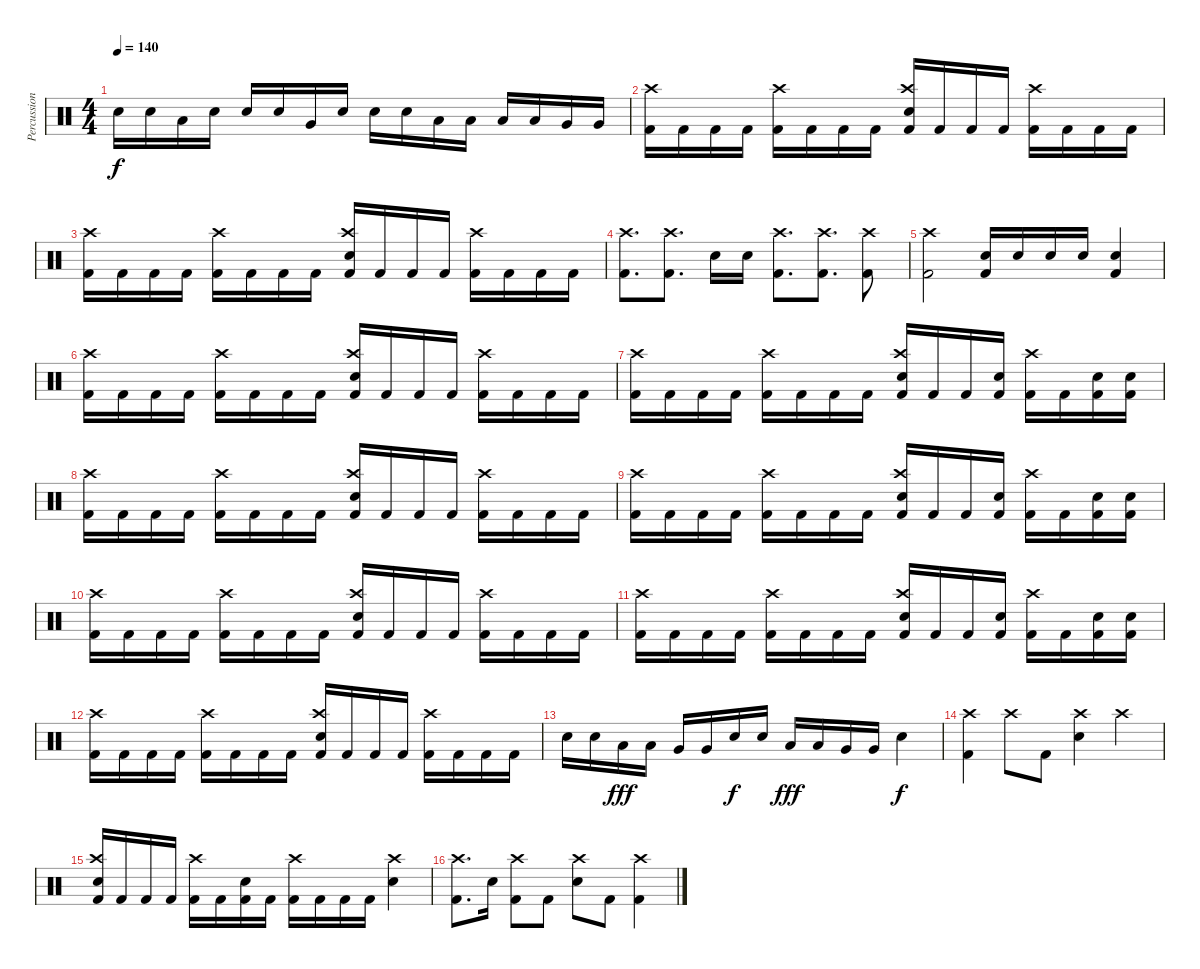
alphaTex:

\track ("Percussion" "Percussion") {instrument percussion}
\staff {score}
\articulation defaults
\ts (4 4)
\tempo 140
\clef neutral
\ks c "Snare (hit) 2".16{dy f} "Snare (hit) 2".16 "Low Tom (hit)".16 "Snare (hit) 2".16 "Snare (hit) 2".16 "Snare (hit) 2".16 "Very Low Tom (hit)".16 "Snare (hit) 2".16 "Snare (hit) 2".16 "Snare (hit) 2".16 "Low Tom (hit)".16 "Low Tom (hit)".16 "Low Tom (hit)".16 "Low Tom (hit)".16 "Very Low Tom (hit)".16 "Very Low Tom (hit)".16
|
("Crash high (hit)" "Kick (hit) 2").16 "Kick (hit) 2".16 "Kick (hit) 2".16 "Kick (hit) 2".16 ("Crash high (hit)" "Kick (hit) 2").16 "Kick (hit) 2".16 "Kick (hit) 2".16 "Kick (hit) 2".16 ("Crash high (hit)" "Snare (hit) 2" "Kick (hit) 2").16 "Kick (hit) 2".16 "Kick (hit) 2".16 "Kick (hit) 2".16 ("Crash high (hit)" "Kick (hit) 2").16 "Kick (hit) 2".16 "Kick (hit) 2".16 "Kick (hit) 2".16 |
("Crash high (hit)" "Kick (hit) 2").16 "Kick (hit) 2".16 "Kick (hit) 2".16 "Kick (hit) 2".16 ("Crash high (hit)" "Kick (hit) 2").16 "Kick (hit) 2".16 "Kick (hit) 2".16 "Kick (hit) 2".16 ("Crash high (hit)" "Snare (hit) 2" "Kick (hit) 2").16 "Kick (hit) 2".16 "Kick (hit) 2".16 "Kick (hit) 2".16 ("Crash high (hit)" "Kick (hit) 2").16 "Kick (hit) 2".16 "Kick (hit) 2".16 "Kick (hit) 2".16 |
("Crash high (hit)" "Kick (hit) 2").8{d} ("Crash high (hit)" "Kick (hit) 2").8{d} "Snare (hit) 2".16 "Snare (hit) 2".16 ("Crash high (hit)" "Kick (hit) 2").8{d} ("Crash high (hit)" "Kick (hit) 2").8{d} ("Crash high (hit)" "Kick (hit) 2").8 |
("Crash high (hit)" "Kick (hit) 2").2 ("Snare (hit) 2" "Kick (hit) 2").16 "Snare (hit) 2".16 "Snare (hit) 2".16 "Snare (hit) 2".16 ("Snare (hit) 2" "Kick (hit) 2").4 |
("Crash high (hit)" "Kick (hit) 2").16 "Kick (hit) 2".16 "Kick (hit) 2".16 "Kick (hit) 2".16 ("Crash high (hit)" "Kick (hit) 2").16 "Kick (hit) 2".16 "Kick (hit) 2".16 "Kick (hit) 2".16 ("Crash high (hit)" "Snare (hit) 2" "Kick (hit) 2").16 "Kick (hit) 2".16 "Kick (hit) 2".16 "Kick (hit) 2".16 ("Crash high (hit)" "Kick (hit) 2").16 "Kick (hit) 2".16 "Kick (hit) 2".16 "Kick (hit) 2".16 |
("Crash high (hit)" "Kick (hit) 2").16 "Kick (hit) 2".16 "Kick (hit) 2".16 "Kick (hit) 2".16 ("Crash high (hit)" "Kick (hit) 2").16 "Kick (hit) 2".16 "Kick (hit) 2".16 "Kick (hit) 2".16 ("Crash high (hit)" "Snare (hit) 2" "Kick (hit) 2").16 "Kick (hit) 2".16 "Kick (hit) 2".16 ("Snare (hit) 2" "Kick (hit) 2").16 ("Crash high (hit)" "Kick (hit) 2").16 "Kick (hit) 2".16 ("Snare (hit) 2" "Kick (hit) 2").16 ("Snare (hit) 2" "Kick (hit) 2").16 |
("Crash high (hit)" "Kick (hit) 2").16 "Kick (hit) 2".16 "Kick (hit) 2".16 "Kick (hit) 2".16 ("Crash high (hit)" "Kick (hit) 2").16 "Kick (hit) 2".16 "Kick (hit) 2".16 "Kick (hit) 2".16 ("Crash high (hit)" "Snare (hit) 2" "Kick (hit) 2").16 "Kick (hit) 2".16 "Kick (hit) 2".16 "Kick (hit) 2".16 ("Crash high (hit)" "Kick (hit) 2").16 "Kick (hit) 2".16 "Kick (hit) 2".16 "Kick (hit) 2".16 |
("Crash high (hit)" "Kick (hit) 2").16 "Kick (hit) 2".16 "Kick (hit) 2".16 "Kick (hit) 2".16 ("Crash high (hit)" "Kick (hit) 2").16 "Kick (hit) 2".16 "Kick (hit) 2".16 "Kick (hit) 2".16 ("Crash high (hit)" "Snare (hit) 2" "Kick (hit) 2").16 "Kick (hit) 2".16 "Kick (hit) 2".16 ("Snare (hit) 2" "Kick (hit) 2").16 ("Crash high (hit)" "Kick (hit) 2").16 "Kick (hit) 2".16 ("Snare (hit) 2" "Kick (hit) 2").16 ("Snare (hit) 2" "Kick (hit) 2").16 |
("Crash high (hit)" "Kick (hit) 2").16 "Kick (hit) 2".16 "Kick (hit) 2".16 "Kick (hit) 2".16 ("Crash high (hit)" "Kick (hit) 2").16 "Kick (hit) 2".16 "Kick (hit) 2".16 "Kick (hit) 2".16 ("Crash high (hit)" "Snare (hit) 2" "Kick (hit) 2").16 "Kick (hit) 2".16 "Kick (hit) 2".16 "Kick (hit) 2".16 ("Crash high (hit)" "Kick (hit) 2").16 "Kick (hit) 2".16 "Kick (hit) 2".16 "Kick (hit) 2".16 |
("Crash high (hit)" "Kick (hit) 2").16 "Kick (hit) 2".16 "Kick (hit) 2".16 "Kick (hit) 2".16 ("Crash high (hit)" "Kick (hit) 2").16 "Kick (hit) 2".16 "Kick (hit) 2".16 "Kick (hit) 2".16 ("Crash high (hit)" "Snare (hit) 2" "Kick (hit) 2").16 "Kick (hit) 2".16 "Kick (hit) 2".16 ("Snare (hit) 2" "Kick (hit) 2").16 ("Crash high (hit)" "Kick (hit) 2").16 "Kick (hit) 2".16 ("Snare (hit) 2" "Kick (hit) 2").16 ("Snare (hit) 2" "Kick (hit) 2").16 |
("Crash high (hit)" "Kick (hit) 2").16 "Kick (hit) 2".16 "Kick (hit) 2".16 "Kick (hit) 2".16 ("Crash high (hit)" "Kick (hit) 2").16 "Kick (hit) 2".16 "Kick (hit) 2".16 "Kick (hit) 2".16 ("Crash high (hit)" "Snare (hit) 2" "Kick (hit) 2").16 "Kick (hit) 2".16 "Kick (hit) 2".16 "Kick (hit) 2".16 ("Crash high (hit)" "Kick (hit) 2").16 "Kick (hit) 2".16 "Kick (hit) 2".16 "Kick (hit) 2".16 |
"Snare (hit) 2".16 "Snare (hit) 2".16 "Low Tom (hit)".16{dy fff} "Low Tom (hit)".16 "Very Low Tom (hit)".16 "Very Low Tom (hit)".16 "Snare (hit) 2".16{dy f} "Snare (hit) 2".16 "Low Tom (hit)".16{dy fff} "Low Tom (hit)".16 "Very Low Tom (hit)".16 "Very Low Tom (hit)".16 "Snare (hit) 2".4{dy f} |
("Crash high (hit)" "Kick (hit) 2").4 "Crash high (hit)".8 "Kick (hit) 2".8 ("Crash high (hit)" "Snare (hit) 2").4 "Crash high (hit)".4 |
("Crash high (hit)" "Snare (hit) 2" "Kick (hit) 2").16 "Kick (hit) 2".16 "Kick (hit) 2".16 "Kick (hit) 2".16 ("Crash high (hit)" "Kick (hit) 2").16 "Kick (hit) 2".16 ("Snare (hit) 2" "Kick (hit) 2").16 "Kick (hit) 2".16 ("Crash high (hit)" "Kick (hit) 2").16 "Kick (hit) 2".16 "Kick (hit) 2".16 "Kick (hit) 2".16 ("Crash high (hit)" "Snare (hit) 2").4 |
("Crash high (hit)" "Kick (hit) 2").8{d} "Snare (hit) 2".16 ("Crash high (hit)" "Kick (hit) 2").8 "Kick (hit) 2".8 ("Crash high (hit)" "Snare (hit) 2").8 "Kick (hit) 2".8 ("Crash high (hit)" "Kick (hit) 2").4
